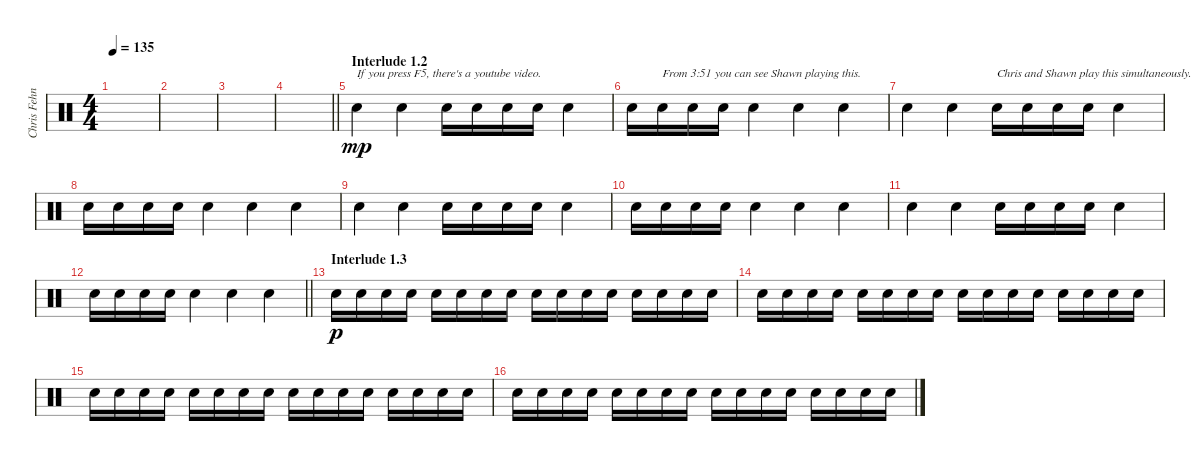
\track ("Chris Fehn" "Chris Fehn") {instrument percussion}
\staff {score}
\articulation defaults
\ts (4 4)
\tempo 135
\clef neutral
\ks c
|
|
|
\barLineRight lightlight
|
\section ("" "Interlude 1.2")
"Snare (hit) 2".4{txt "If you press F5, there's a youtube video." dy mp} "Snare (hit) 2".4 "Snare (hit) 2".16 "Snare (hit) 2".16 "Snare (hit) 2".16 "Snare (hit) 2".16 "Snare (hit) 2".4 |
"Snare (hit) 2".16 "Snare (hit) 2".16{txt "From 3:51 you can see Shawn playing this."} "Snare (hit) 2".16 "Snare (hit) 2".16 "Snare (hit) 2".4 "Snare (hit) 2".4 "Snare (hit) 2".4 |
"Snare (hit) 2".4 "Snare (hit) 2".4 "Snare (hit) 2".16{txt "Chris and Shawn play this simultaneously."} "Snare (hit) 2".16 "Snare (hit) 2".16 "Snare (hit) 2".16 "Snare (hit) 2".4 |
"Snare (hit) 2".16 "Snare (hit) 2".16 "Snare (hit) 2".16 "Snare (hit) 2".16 "Snare (hit) 2".4 "Snare (hit) 2".4 "Snare (hit) 2".4 |
"Snare (hit) 2".4 "Snare (hit) 2".4 "Snare (hit) 2".16 "Snare (hit) 2".16 "Snare (hit) 2".16 "Snare (hit) 2".16 "Snare (hit) 2".4 |
"Snare (hit) 2".16 "Snare (hit) 2".16 "Snare (hit) 2".16 "Snare (hit) 2".16 "Snare (hit) 2".4 "Snare (hit) 2".4 "Snare (hit) 2".4 |
"Snare (hit) 2".4 "Snare (hit) 2".4 "Snare (hit) 2".16 "Snare (hit) 2".16 "Snare (hit) 2".16 "Snare (hit) 2".16 "Snare (hit) 2".4 |
\barLineRight lightlight "Snare (hit) 2".16 "Snare (hit) 2".16 "Snare (hit) 2".16 "Snare (hit) 2".16 "Snare (hit) 2".4 "Snare (hit) 2".4 "Snare (hit) 2".4
|
\section ("" "Interlude 1.3")
"Snare (hit) 2".16{dy p} "Snare (hit) 2".16 "Snare (hit) 2".16 "Snare (hit) 2".16 "Snare (hit) 2".16 "Snare (hit) 2".16 "Snare (hit) 2".16 "Snare (hit) 2".16 "Snare (hit) 2".16 "Snare (hit) 2".16 "Snare (hit) 2".16 "Snare (hit) 2".16 "Snare (hit) 2".16 "Snare (hit) 2".16 "Snare (hit) 2".16 "Snare (hit) 2".16 |
"Snare (hit) 2".16 "Snare (hit) 2".16 "Snare (hit) 2".16 "Snare (hit) 2".16 "Snare (hit) 2".16 "Snare (hit) 2".16 "Snare (hit) 2".16 "Snare (hit) 2".16 "Snare (hit) 2".16 "Snare (hit) 2".16 "Snare (hit) 2".16 "Snare (hit) 2".16 "Snare (hit) 2".16 "Snare (hit) 2".16 "Snare (hit) 2".16 "Snare (hit) 2".16 |
"Snare (hit) 2".16 "Snare (hit) 2".16 "Snare (hit) 2".16 "Snare (hit) 2".16 "Snare (hit) 2".16 "Snare (hit) 2".16 "Snare (hit) 2".16 "Snare (hit) 2".16 "Snare (hit) 2".16 "Snare (hit) 2".16 "Snare (hit) 2".16 "Snare (hit) 2".16 "Snare (hit) 2".16 "Snare (hit) 2".16 "Snare (hit) 2".16 "Snare (hit) 2".16 |
"Snare (hit) 2".16 "Snare (hit) 2".16 "Snare (hit) 2".16 "Snare (hit) 2".16 "Snare (hit) 2".16 "Snare (hit) 2".16 "Snare (hit) 2".16 "Snare (hit) 2".16 "Snare (hit) 2".16 "Snare (hit) 2".16 "Snare (hit) 2".16 "Snare (hit) 2".16 "Snare (hit) 2".16 "Snare (hit) 2".16 "Snare (hit) 2".16 "Snare (hit) 2".16
